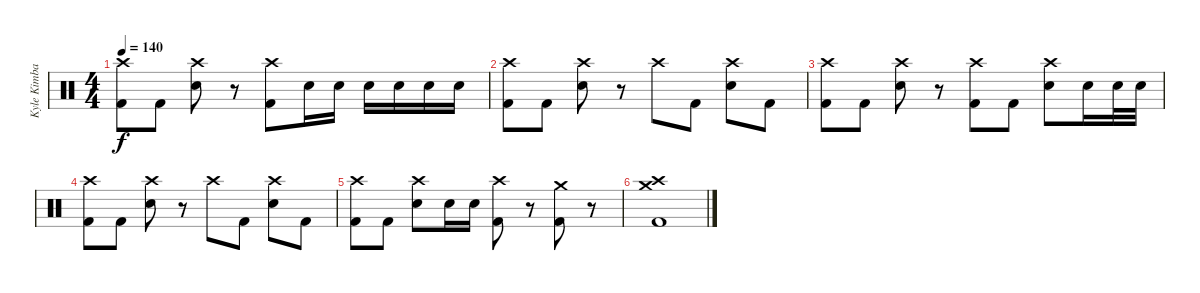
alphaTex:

\track ("Kyle Kimball" "Kyle Kimba") {instrument percussion}
\staff
\articulation defaults
\ts (4 4)
\tempo 140
\clef neutral
\ks c
("Kick (hit) 2" "Crash high (hit)").8{dy f} "Kick (hit) 2".8 ("Electric Snare (hit)" "Crash high (hit)").8 r.8 ("Kick (hit) 2" "Crash high (hit)").8 "Electric Snare (hit)".16 "Electric Snare (hit)".16 "Electric Snare (hit)".16 "Electric Snare (hit)".16 "Electric Snare (hit)".16 "Electric Snare (hit)".16 |
("Kick (hit) 2" "Crash high (hit)").8 "Kick (hit) 2".8 ("Electric Snare (hit)" "Crash high (hit)").8 r.8 "Crash high (hit)".8 "Kick (hit) 2".8 ("Electric Snare (hit)" "Crash high (hit)").8 "Kick (hit) 2".8 |
("Kick (hit) 2" "Crash high (hit)").8 "Kick (hit) 2".8 ("Electric Snare (hit)" "Crash high (hit)").8 r.8 ("Kick (hit) 2" "Crash high (hit)").8 "Kick (hit) 2".8 ("Electric Snare (hit)" "Crash high (hit)").8 "Electric Snare (hit)".16 "Electric Snare (hit)".32 "Electric Snare (hit)".32 |
("Kick (hit) 2" "Crash high (hit)").8 "Kick (hit) 2".8 ("Electric Snare (hit)" "Crash high (hit)").8 r.8 "Crash high (hit)".8 "Kick (hit) 2".8 ("Electric Snare (hit)" "Crash high (hit)").8 "Kick (hit) 2".8 |
("Kick (hit) 2" "Crash high (hit)").8 "Kick (hit) 2".8 ("Electric Snare (hit)" "Crash high (hit)").8 "Electric Snare (hit)".16 "Electric Snare (hit)".16 ("Kick (hit) 2" "Crash high (hit)").8 r.8 ("Kick (hit) 2" "Crash medium (hit)").8 r.8 |
("Kick (hit) 2" "Crash high (hit)" "Crash medium (hit)").1
